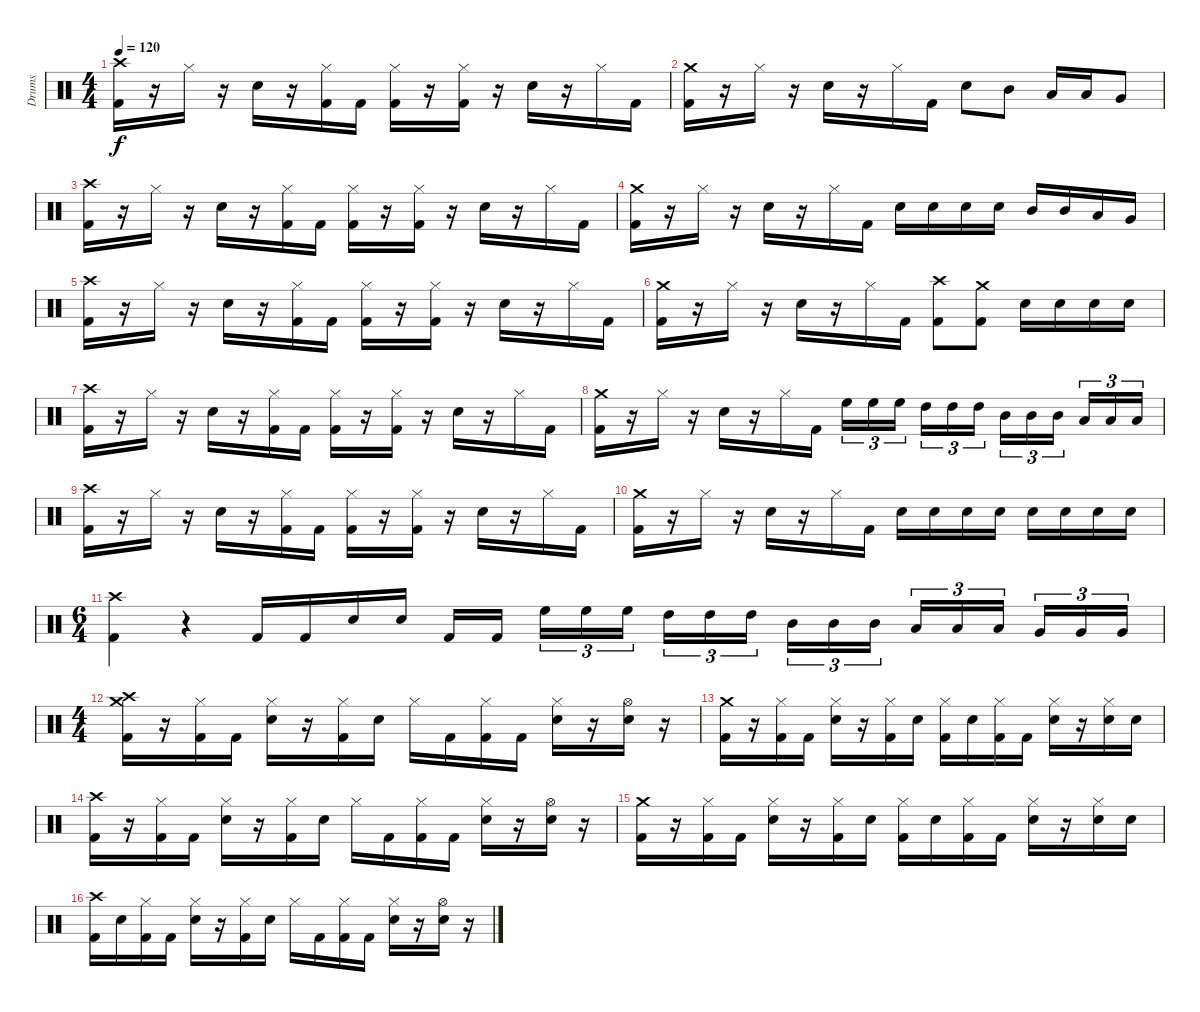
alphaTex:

\track ("Drums" "Drums") {instrument percussion}
\staff {score}
\articulation defaults
\ts (4 4)
\tempo 120
\clef neutral
\ks c
("Crash high (hit)" "Kick (hit) 2").16{dy f} r.16 "Hi-Hat (closed)".16 r.16 "Snare (hit) 2".16 r.16 ("Hi-Hat (closed)" "Kick (hit) 2").16 "Kick (hit) 2".16 ("Hi-Hat (closed)" "Kick (hit) 2").16 r.16 ("Hi-Hat (closed)" "Kick (hit) 2").16 r.16 "Snare (hit) 2".16 r.16 "Hi-Hat (closed)".16 "Kick (hit) 2".16 |
("Crash medium (hit)" "Kick (hit) 2").16 r.16 "Hi-Hat (closed)".16 r.16 "Snare (hit) 2".16 r.16 "Hi-Hat (closed)".16 "Kick (hit) 2".16 "Snare (hit) 2".8 "Mid Tom (hit)".8 "Low Tom (hit)".16 "Low Tom (hit)".16 "Very Low Tom (hit)".8 |
("Crash high (hit)" "Kick (hit) 2").16 r.16 "Hi-Hat (closed)".16 r.16 "Snare (hit) 2".16 r.16 ("Hi-Hat (closed)" "Kick (hit) 2").16 "Kick (hit) 2".16 ("Hi-Hat (closed)" "Kick (hit) 2").16 r.16 ("Hi-Hat (closed)" "Kick (hit) 2").16 r.16 "Snare (hit) 2".16 r.16 "Hi-Hat (closed)".16 "Kick (hit) 2".16 |
("Crash medium (hit)" "Kick (hit) 2").16 r.16 "Hi-Hat (closed)".16 r.16 "Snare (hit) 2".16 r.16 "Hi-Hat (closed)".16 "Kick (hit) 2".16 "Snare (hit) 2".16 "Snare (hit) 2".16 "Snare (hit) 2".16 "Snare (hit) 2".16 "Mid Tom (hit)".16 "Mid Tom (hit)".16 "Low Tom (hit)".16 "Very Low Tom (hit)".16 |
("Crash high (hit)" "Kick (hit) 2").16 r.16 "Hi-Hat (closed)".16 r.16 "Snare (hit) 2".16 r.16 ("Hi-Hat (closed)" "Kick (hit) 2").16 "Kick (hit) 2".16 ("Hi-Hat (closed)" "Kick (hit) 2").16 r.16 ("Hi-Hat (closed)" "Kick (hit) 2").16 r.16 "Snare (hit) 2".16 r.16 "Hi-Hat (closed)".16 "Kick (hit) 2".16 |
("Crash medium (hit)" "Kick (hit) 2").16 r.16 "Hi-Hat (closed)".16 r.16 "Snare (hit) 2".16 r.16 "Hi-Hat (closed)".16 "Kick (hit) 2".16 ("Crash high (hit)" "Kick (hit) 2").8 ("Crash medium (hit)" "Kick (hit) 2").8 "Snare (hit) 2".16 "Snare (hit) 2".16 "Snare (hit) 2".16 "Snare (hit) 2".16 |
("Crash high (hit)" "Kick (hit) 2").16 r.16 "Hi-Hat (closed)".16 r.16 "Snare (hit) 2".16 r.16 ("Hi-Hat (closed)" "Kick (hit) 2").16 "Kick (hit) 2".16 ("Hi-Hat (closed)" "Kick (hit) 2").16 r.16 ("Hi-Hat (closed)" "Kick (hit) 2").16 r.16 "Snare (hit) 2".16 r.16 "Hi-Hat (closed)".16 "Kick (hit) 2".16 |
("Crash medium (hit)" "Kick (hit) 2").16 r.16 "Hi-Hat (closed)".16 r.16 "Snare (hit) 2".16 r.16 "Hi-Hat (closed)".16 "Kick (hit) 2".16 "High Floor Tom (hit)".16{tu (3 2)} "High Floor Tom (hit)".16{tu (3 2)} "High Floor Tom (hit)".16{tu (3 2)} "High Tom (hit)".16{tu (3 2)} "High Tom (hit)".16{tu (3 2)} "High Tom (hit)".16{tu (3 2)} "Mid Tom (hit)".16{tu (3 2)} "Mid Tom (hit)".16{tu (3 2)} "Mid Tom (hit)".16{tu (3 2)} "Low Tom (hit)".16{tu (3 2)} "Low Tom (hit)".16{tu (3 2)} "Low Tom (hit)".16{tu (3 2)} |
("Crash high (hit)" "Kick (hit) 2").16 r.16 "Hi-Hat (closed)".16 r.16 "Snare (hit) 2".16 r.16 ("Hi-Hat (closed)" "Kick (hit) 2").16 "Kick (hit) 2".16 ("Hi-Hat (closed)" "Kick (hit) 2").16 r.16 ("Hi-Hat (closed)" "Kick (hit) 2").16 r.16 "Snare (hit) 2".16 r.16 "Hi-Hat (closed)".16 "Kick (hit) 2".16 |
("Crash medium (hit)" "Kick (hit) 2").16 r.16 "Hi-Hat (closed)".16 r.16 "Snare (hit) 2".16 r.16 "Hi-Hat (closed)".16 "Kick (hit) 2".16 "Snare (hit) 2".16 "Snare (hit) 2".16 "Snare (hit) 2".16 "Snare (hit) 2".16 "Snare (hit) 2".16 "Snare (hit) 2".16 "Snare (hit) 2".16 "Snare (hit) 2".16 |
\ts (6 4)
("Crash high (hit)" "Kick (hit) 2").4 r.4 "Kick (hit) 2".16 "Kick (hit) 2".16 "Snare (hit) 2".16 "Snare (hit) 2".16 "Kick (hit) 2".16 "Kick (hit) 2".16 "High Floor Tom (hit)".16{tu (3 2)} "High Floor Tom (hit)".16{tu (3 2)} "High Floor Tom (hit)".16{tu (3 2)} "High Tom (hit)".16{tu (3 2)} "High Tom (hit)".16{tu (3 2)} "High Tom (hit)".16{tu (3 2)} "Mid Tom (hit)".16{tu (3 2)} "Mid Tom (hit)".16{tu (3 2)} "Mid Tom (hit)".16{tu (3 2)} "Low Tom (hit)".16{tu (3 2)} "Low Tom (hit)".16{tu (3 2)} "Low Tom (hit)".16{tu (3 2)} "Very Low Tom (hit)".16{tu (3 2)} "Very Low Tom (hit)".16{tu (3 2)} "Very Low Tom (hit)".16{tu (3 2)} |
\ts (4 4)
("Crash medium (hit)" "Kick (hit) 2" "Crash high (hit)").16 r.16 ("Hi-Hat (closed)" "Kick (hit) 2").16 "Kick (hit) 2".16 ("Hi-Hat (closed)" "Snare (hit) 2").16 r.16 ("Hi-Hat (closed)" "Kick (hit) 2").16 "Snare (hit) 2".16 "Hi-Hat (closed)".16 "Kick (hit) 2".16 ("Hi-Hat (closed)" "Kick (hit) 2").16 "Kick (hit) 2".16 ("Hi-Hat (closed)" "Snare (hit) 2").16 r.16 ("Hi-Hat (open)" "Snare (hit) 2").16 r.16 |
("Crash medium (hit)" "Kick (hit) 2").16 r.16 ("Hi-Hat (closed)" "Kick (hit) 2").16 "Kick (hit) 2".16 ("Hi-Hat (closed)" "Snare (hit) 2").16 r.16 ("Hi-Hat (closed)" "Kick (hit) 2").16 "Snare (hit) 2".16 ("Hi-Hat (closed)" "Kick (hit) 2").16 "Snare (hit) 2".16 ("Hi-Hat (closed)" "Kick (hit) 2").16 "Kick (hit) 2".16 ("Hi-Hat (closed)" "Snare (hit) 2").16 r.16 ("Hi-Hat (closed)" "Snare (hit) 2").16 "Snare (hit) 2".16 |
("Crash high (hit)" "Kick (hit) 2").16 r.16 ("Hi-Hat (closed)" "Kick (hit) 2").16 "Kick (hit) 2".16 ("Hi-Hat (closed)" "Snare (hit) 2").16 r.16 ("Hi-Hat (closed)" "Kick (hit) 2").16 "Snare (hit) 2".16 "Hi-Hat (closed)".16 "Kick (hit) 2".16 ("Hi-Hat (closed)" "Kick (hit) 2").16 "Kick (hit) 2".16 ("Hi-Hat (closed)" "Snare (hit) 2").16 r.16 ("Hi-Hat (open)" "Snare (hit) 2").16 r.16 |
("Crash medium (hit)" "Kick (hit) 2").16 r.16 ("Hi-Hat (closed)" "Kick (hit) 2").16 "Kick (hit) 2".16 ("Hi-Hat (closed)" "Snare (hit) 2").16 r.16 ("Hi-Hat (closed)" "Kick (hit) 2").16 "Snare (hit) 2".16 ("Hi-Hat (closed)" "Kick (hit) 2").16 "Snare (hit) 2".16 ("Hi-Hat (closed)" "Kick (hit) 2").16 "Kick (hit) 2".16 ("Hi-Hat (closed)" "Snare (hit) 2").16 r.16 ("Hi-Hat (closed)" "Snare (hit) 2").16 "Snare (hit) 2".16 |
("Crash high (hit)" "Kick (hit) 2").16 "Snare (hit) 2".16 ("Hi-Hat (closed)" "Kick (hit) 2").16 "Kick (hit) 2".16 ("Hi-Hat (closed)" "Snare (hit) 2").16 r.16 ("Hi-Hat (closed)" "Kick (hit) 2").16 "Snare (hit) 2".16 "Hi-Hat (closed)".16 "Kick (hit) 2".16 ("Hi-Hat (closed)" "Kick (hit) 2").16 "Kick (hit) 2".16 ("Hi-Hat (closed)" "Snare (hit) 2").16 r.16 ("Hi-Hat (open)" "Snare (hit) 2").16 r.16
